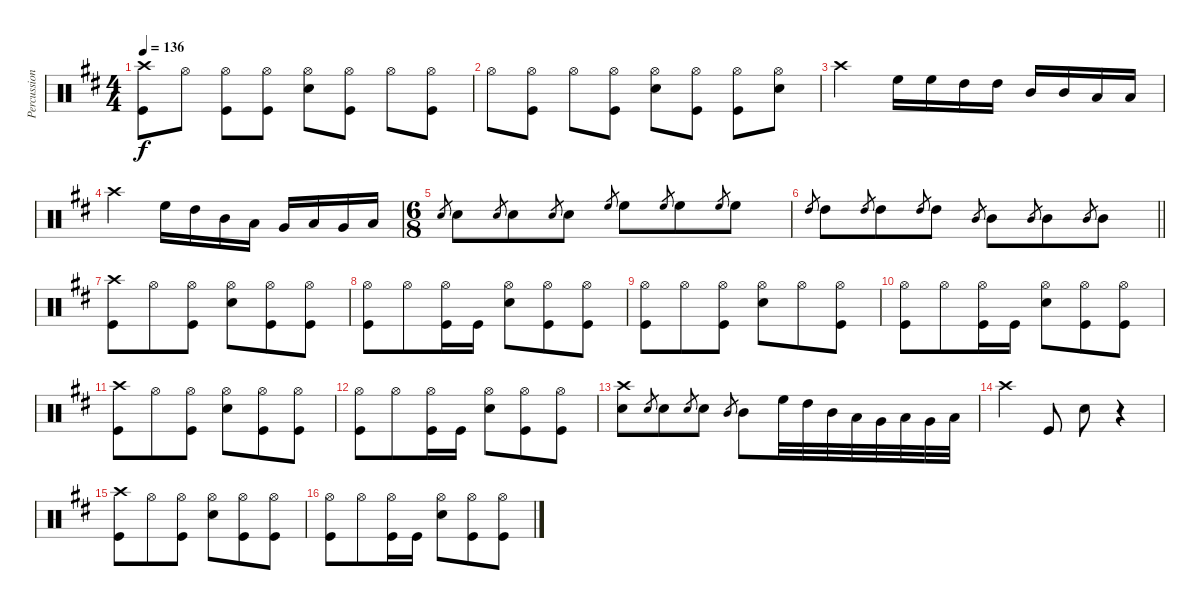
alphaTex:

\track ("Percussion" "Percussion") {instrument percussion}
\staff {score}
\articulation defaults
\ts (4 4)
\tempo 136
\clef neutral
\ks d
("Kick (hit)" "Crash high (hit)").8{dy f} "Hi-Hat (open)".8 ("Kick (hit)" "Hi-Hat (open)").8 ("Kick (hit)" "Hi-Hat (open)").8 ("Snare (hit) 2" "Hi-Hat (open)").8 ("Kick (hit)" "Hi-Hat (open)").8 "Hi-Hat (open)".8 ("Kick (hit)" "Hi-Hat (open)").8 |
"Hi-Hat (open)".8 ("Kick (hit)" "Hi-Hat (open)").8 "Hi-Hat (open)".8 ("Kick (hit)" "Hi-Hat (open)").8 ("Snare (hit) 2" "Hi-Hat (open)").8 ("Kick (hit)" "Hi-Hat (open)").8 ("Kick (hit)" "Hi-Hat (open)").8 ("Snare (hit) 2" "Hi-Hat (open)").8 |
"Crash high (hit)".2 "High Floor Tom (hit)".16 "High Floor Tom (hit)".16 "High Tom (hit)".16 "High Tom (hit)".16 "Mid Tom (hit)".16 "Mid Tom (hit)".16 "Low Tom (hit)".16 "Low Tom (hit)".16 |
"Crash high (hit)".2 "High Floor Tom (hit)".16 "High Tom (hit)".16 "Mid Tom (hit)".16 "Low Tom (hit)".16 "Very Low Tom (hit)".16 "Low Floor Tom (hit)".16 "Very Low Tom (hit)".16 "Low Tom (hit)".16 |
\ts (6 8)
"Snare (hit) 2".8{gr} "Snare (hit) 2".8 "Snare (hit) 2".8{gr} "Snare (hit) 2".8 "Snare (hit) 2".8{gr} "Snare (hit) 2".8 "High Floor Tom (hit)".8{gr} "High Floor Tom (hit)".8 "High Floor Tom (hit)".8{gr} "High Floor Tom (hit)".8 "High Floor Tom (hit)".8{gr} "High Floor Tom (hit)".8 |
\barLineRight lightlight "High Tom (hit)".8{gr} "High Tom (hit)".8 "High Tom (hit)".8{gr} "High Tom (hit)".8 "High Tom (hit)".8{gr} "High Tom (hit)".8 "Mid Tom (hit)".8{gr} "Mid Tom (hit)".8 "Mid Tom (hit)".8{gr} "Mid Tom (hit)".8 "Mid Tom (hit)".8{gr} "Mid Tom (hit)".8
|
("Crash high (hit)" "Kick (hit)").8 "Hi-Hat (open)".8 ("Hi-Hat (open)" "Kick (hit)").8 ("Snare (hit) 2" "Hi-Hat (open)").8 ("Hi-Hat (open)" "Kick (hit)").8 ("Hi-Hat (open)" "Kick (hit)").8 |
("Hi-Hat (open)" "Kick (hit)").8 "Hi-Hat (open)".8 ("Hi-Hat (open)" "Kick (hit)").16 "Kick (hit)".16 ("Snare (hit) 2" "Hi-Hat (open)").8 ("Kick (hit)" "Hi-Hat (open)").8 ("Kick (hit)" "Hi-Hat (open)").8 |
("Hi-Hat (open)" "Kick (hit)").8 "Hi-Hat (open)".8 ("Hi-Hat (open)" "Kick (hit)").8 ("Hi-Hat (open)" "Snare (hit) 2").8 "Hi-Hat (open)".8 ("Hi-Hat (open)" "Kick (hit)").8 |
("Hi-Hat (open)" "Kick (hit)").8 "Hi-Hat (open)".8 ("Hi-Hat (open)" "Kick (hit)").16 "Kick (hit)".16 ("Snare (hit) 2" "Hi-Hat (open)").8 ("Kick (hit)" "Hi-Hat (open)").8 ("Kick (hit)" "Hi-Hat (open)").8 |
("Crash high (hit)" "Kick (hit)").8 "Hi-Hat (open)".8 ("Hi-Hat (open)" "Kick (hit)").8 ("Snare (hit) 2" "Hi-Hat (open)").8 ("Hi-Hat (open)" "Kick (hit)").8 ("Hi-Hat (open)" "Kick (hit)").8 |
("Hi-Hat (open)" "Kick (hit)").8 "Hi-Hat (open)".8 ("Hi-Hat (open)" "Kick (hit)").16 "Kick (hit)".16 ("Snare (hit) 2" "Hi-Hat (open)").8 ("Kick (hit)" "Hi-Hat (open)").8 ("Kick (hit)" "Hi-Hat (open)").8 |
("Snare (hit) 2" "Crash high (hit)").8 "Snare (hit) 2".8{gr} "Snare (hit) 2".8 "Snare (hit) 2".8{gr} "Snare (hit) 2".8 "Mid Tom (hit)".8{gr} "Mid Tom (hit)".8 "High Floor Tom (hit)".32 "High Tom (hit)".32 "Mid Tom (hit)".32 "Low Tom (hit)".32 "Very Low Tom (hit)".32 "Low Floor Tom (hit)".32 "Very Low Tom (hit)".32 "Low Tom (hit)".32 |
"Crash high (hit)".4 "Kick (hit)".8 "Snare (hit) 2".8 r.4 |
("Crash high (hit)" "Kick (hit)").8 "Hi-Hat (open)".8 ("Hi-Hat (open)" "Kick (hit)").8 ("Snare (hit) 2" "Hi-Hat (open)").8 ("Hi-Hat (open)" "Kick (hit)").8 ("Hi-Hat (open)" "Kick (hit)").8 |
("Hi-Hat (open)" "Kick (hit)").8 "Hi-Hat (open)".8 ("Hi-Hat (open)" "Kick (hit)").16 "Kick (hit)".16 ("Snare (hit) 2" "Hi-Hat (open)").8 ("Kick (hit)" "Hi-Hat (open)").8 ("Kick (hit)" "Hi-Hat (open)").8
